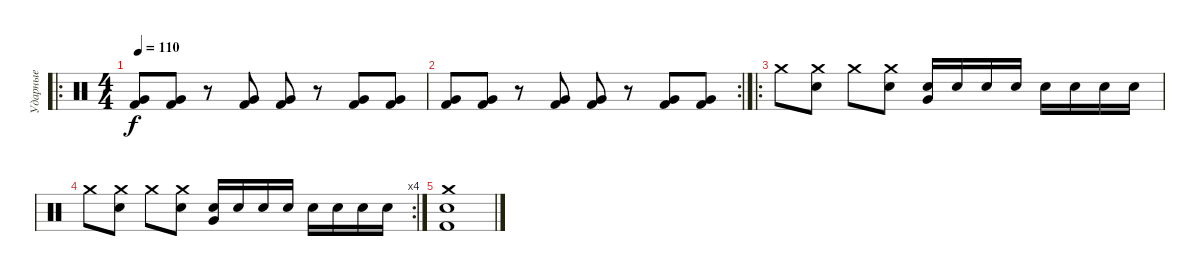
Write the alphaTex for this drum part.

\track ("Ударные" "Ударные") {instrument percussion}
\staff {score}
\articulation defaults
\ro
\ts (4 4)
\tempo 110
\clef neutral
\ks c
("Very Low Tom (hit)" "Kick (hit) 2").8{dy f} ("Very Low Tom (hit)" "Kick (hit) 2").8 r.8 ("Very Low Tom (hit)" "Kick (hit) 2").8 ("Very Low Tom (hit)" "Kick (hit) 2").8 r.8 ("Very Low Tom (hit)" "Kick (hit) 2").8 ("Very Low Tom (hit)" "Kick (hit) 2").8 |
\rc 2
("Very Low Tom (hit)" "Kick (hit) 2").8 ("Very Low Tom (hit)" "Kick (hit) 2").8 r.8 ("Very Low Tom (hit)" "Kick (hit) 2").8 ("Very Low Tom (hit)" "Kick (hit) 2").8 r.8 ("Very Low Tom (hit)" "Kick (hit) 2").8 ("Very Low Tom (hit)" "Kick (hit) 2").8 |
\ro "Crash medium (hit)".8
("Crash medium (hit)" "Electric Snare (hit)").8 "Crash medium (hit)".8 ("Crash medium (hit)" "Electric Snare (hit)").8 ("Electric Snare (hit)" "Very Low Tom (hit)").16 "Electric Snare (hit)".16 "Electric Snare (hit)".16 "Electric Snare (hit)".16 "Electric Snare (hit)".16 "Electric Snare (hit)".16 "Electric Snare (hit)".16 "Electric Snare (hit)".16 |
\rc 4 "Crash medium (hit)".8
("Crash medium (hit)" "Electric Snare (hit)").8 "Crash medium (hit)".8 ("Crash medium (hit)" "Electric Snare (hit)").8 ("Electric Snare (hit)" "Very Low Tom (hit)").16 "Electric Snare (hit)".16 "Electric Snare (hit)".16 "Electric Snare (hit)".16 "Electric Snare (hit)".16 "Electric Snare (hit)".16 "Electric Snare (hit)".16 "Electric Snare (hit)".16 |
("Crash medium (hit)" "Kick (hit) 2" "Electric Snare (hit)").1
